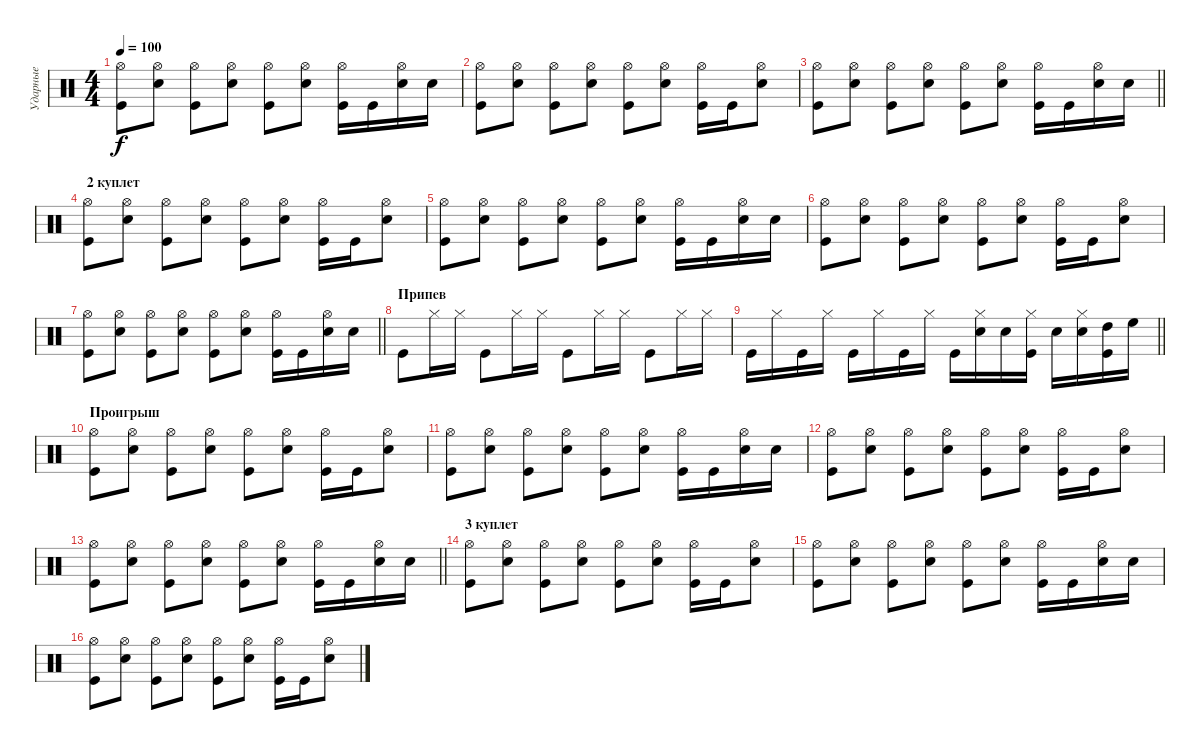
\track ("Ударные" "Ударные") {instrument percussion}
\staff {score}
\articulation defaults
\ts (4 4)
\tempo 100
\clef neutral
\ks c
("Hi-Hat (open)" "Kick (hit)").8{dy f} ("Hi-Hat (open)" "Snare (hit) 2").8 ("Hi-Hat (open)" "Kick (hit)").8 ("Hi-Hat (open)" "Snare (hit) 2").8 ("Hi-Hat (open)" "Kick (hit)").8 ("Hi-Hat (open)" "Snare (hit) 2").8 ("Hi-Hat (open)" "Kick (hit)").16 "Kick (hit)".16 ("Hi-Hat (open)" "Snare (hit) 2").16 "Snare (hit) 2".16 |
("Hi-Hat (open)" "Kick (hit)").8 ("Hi-Hat (open)" "Snare (hit) 2").8 ("Hi-Hat (open)" "Kick (hit)").8 ("Hi-Hat (open)" "Snare (hit) 2").8 ("Hi-Hat (open)" "Kick (hit)").8 ("Hi-Hat (open)" "Snare (hit) 2").8 ("Hi-Hat (open)" "Kick (hit)").16 "Kick (hit)".16 ("Hi-Hat (open)" "Snare (hit) 2").8 |
\barLineRight lightlight
("Hi-Hat (open)" "Kick (hit)").8 ("Hi-Hat (open)" "Snare (hit) 2").8 ("Hi-Hat (open)" "Kick (hit)").8 ("Hi-Hat (open)" "Snare (hit) 2").8 ("Hi-Hat (open)" "Kick (hit)").8 ("Hi-Hat (open)" "Snare (hit) 2").8 ("Hi-Hat (open)" "Kick (hit)").16 "Kick (hit)".16 ("Hi-Hat (open)" "Snare (hit) 2").16 "Snare (hit) 2".16 |
\section ("" " 2 куплет")
("Hi-Hat (open)" "Kick (hit)").8 ("Hi-Hat (open)" "Snare (hit) 2").8 ("Hi-Hat (open)" "Kick (hit)").8 ("Hi-Hat (open)" "Snare (hit) 2").8 ("Hi-Hat (open)" "Kick (hit)").8 ("Hi-Hat (open)" "Snare (hit) 2").8 ("Hi-Hat (open)" "Kick (hit)").16 "Kick (hit)".16 ("Hi-Hat (open)" "Snare (hit) 2").8 |
("Hi-Hat (open)" "Kick (hit)").8 ("Hi-Hat (open)" "Snare (hit) 2").8 ("Hi-Hat (open)" "Kick (hit)").8 ("Hi-Hat (open)" "Snare (hit) 2").8 ("Hi-Hat (open)" "Kick (hit)").8 ("Hi-Hat (open)" "Snare (hit) 2").8 ("Hi-Hat (open)" "Kick (hit)").16 "Kick (hit)".16 ("Hi-Hat (open)" "Snare (hit) 2").16 "Snare (hit) 2".16 |
("Hi-Hat (open)" "Kick (hit)").8 ("Hi-Hat (open)" "Snare (hit) 2").8 ("Hi-Hat (open)" "Kick (hit)").8 ("Hi-Hat (open)" "Snare (hit) 2").8 ("Hi-Hat (open)" "Kick (hit)").8 ("Hi-Hat (open)" "Snare (hit) 2").8 ("Hi-Hat (open)" "Kick (hit)").16 "Kick (hit)".16 ("Hi-Hat (open)" "Snare (hit) 2").8 |
\barLineRight lightlight
("Hi-Hat (open)" "Kick (hit)").8 ("Hi-Hat (open)" "Snare (hit) 2").8 ("Hi-Hat (open)" "Kick (hit)").8 ("Hi-Hat (open)" "Snare (hit) 2").8 ("Hi-Hat (open)" "Kick (hit)").8 ("Hi-Hat (open)" "Snare (hit) 2").8 ("Hi-Hat (open)" "Kick (hit)").16 "Kick (hit)".16 ("Hi-Hat (open)" "Snare (hit) 2").16 "Snare (hit) 2".16 |
\section ("" "Припев")
"Kick (hit)".8 "Hi-Hat (closed)".16 "Hi-Hat (closed)".16 "Kick (hit)".8 "Hi-Hat (closed)".16 "Hi-Hat (closed)".16 "Kick (hit)".8 "Hi-Hat (closed)".16 "Hi-Hat (closed)".16 "Kick (hit)".8 "Hi-Hat (closed)".16 "Hi-Hat (closed)".16 |
\barLineRight lightlight "Kick (hit)".16 "Hi-Hat (closed)".16 "Kick (hit)".16 "Hi-Hat (closed)".16 "Kick (hit)".16 "Hi-Hat (closed)".16 "Kick (hit)".16 "Hi-Hat (closed)".16 "Kick (hit)".16
("Hi-Hat (closed)" "Snare (hit) 2").16 "Snare (hit) 2".16 ("Hi-Hat (closed)" "Kick (hit)").16 "Snare (hit) 2".16 ("Hi-Hat (closed)" "Snare (hit) 2").16 ("High Tom (hit)" "Kick (hit)").16 "High Floor Tom (hit)".16 |
\section ("" "Проигрыш")
("Hi-Hat (open)" "Kick (hit)").8 ("Hi-Hat (open)" "Snare (hit) 2").8 ("Hi-Hat (open)" "Kick (hit)").8 ("Hi-Hat (open)" "Snare (hit) 2").8 ("Hi-Hat (open)" "Kick (hit)").8 ("Hi-Hat (open)" "Snare (hit) 2").8 ("Hi-Hat (open)" "Kick (hit)").16 "Kick (hit)".16 ("Hi-Hat (open)" "Snare (hit) 2").8 |
("Hi-Hat (open)" "Kick (hit)").8 ("Hi-Hat (open)" "Snare (hit) 2").8 ("Hi-Hat (open)" "Kick (hit)").8 ("Hi-Hat (open)" "Snare (hit) 2").8 ("Hi-Hat (open)" "Kick (hit)").8 ("Hi-Hat (open)" "Snare (hit) 2").8 ("Hi-Hat (open)" "Kick (hit)").16 "Kick (hit)".16 ("Hi-Hat (open)" "Snare (hit) 2").16 "Snare (hit) 2".16 |
("Hi-Hat (open)" "Kick (hit)").8 ("Hi-Hat (open)" "Snare (hit) 2").8 ("Hi-Hat (open)" "Kick (hit)").8 ("Hi-Hat (open)" "Snare (hit) 2").8 ("Hi-Hat (open)" "Kick (hit)").8 ("Hi-Hat (open)" "Snare (hit) 2").8 ("Hi-Hat (open)" "Kick (hit)").16 "Kick (hit)".16 ("Hi-Hat (open)" "Snare (hit) 2").8 |
\barLineRight lightlight
("Hi-Hat (open)" "Kick (hit)").8 ("Hi-Hat (open)" "Snare (hit) 2").8 ("Hi-Hat (open)" "Kick (hit)").8 ("Hi-Hat (open)" "Snare (hit) 2").8 ("Hi-Hat (open)" "Kick (hit)").8 ("Hi-Hat (open)" "Snare (hit) 2").8 ("Hi-Hat (open)" "Kick (hit)").16 "Kick (hit)".16 ("Hi-Hat (open)" "Snare (hit) 2").16 "Snare (hit) 2".16 |
\section ("" "3 куплет")
("Hi-Hat (open)" "Kick (hit)").8 ("Hi-Hat (open)" "Snare (hit) 2").8 ("Hi-Hat (open)" "Kick (hit)").8 ("Hi-Hat (open)" "Snare (hit) 2").8 ("Hi-Hat (open)" "Kick (hit)").8 ("Hi-Hat (open)" "Snare (hit) 2").8 ("Hi-Hat (open)" "Kick (hit)").16 "Kick (hit)".16 ("Hi-Hat (open)" "Snare (hit) 2").8 |
("Hi-Hat (open)" "Kick (hit)").8 ("Hi-Hat (open)" "Snare (hit) 2").8 ("Hi-Hat (open)" "Kick (hit)").8 ("Hi-Hat (open)" "Snare (hit) 2").8 ("Hi-Hat (open)" "Kick (hit)").8 ("Hi-Hat (open)" "Snare (hit) 2").8 ("Hi-Hat (open)" "Kick (hit)").16 "Kick (hit)".16 ("Hi-Hat (open)" "Snare (hit) 2").16 "Snare (hit) 2".16 |
("Hi-Hat (open)" "Kick (hit)").8 ("Hi-Hat (open)" "Snare (hit) 2").8 ("Hi-Hat (open)" "Kick (hit)").8 ("Hi-Hat (open)" "Snare (hit) 2").8 ("Hi-Hat (open)" "Kick (hit)").8 ("Hi-Hat (open)" "Snare (hit) 2").8 ("Hi-Hat (open)" "Kick (hit)").16 "Kick (hit)".16 ("Hi-Hat (open)" "Snare (hit) 2").8
